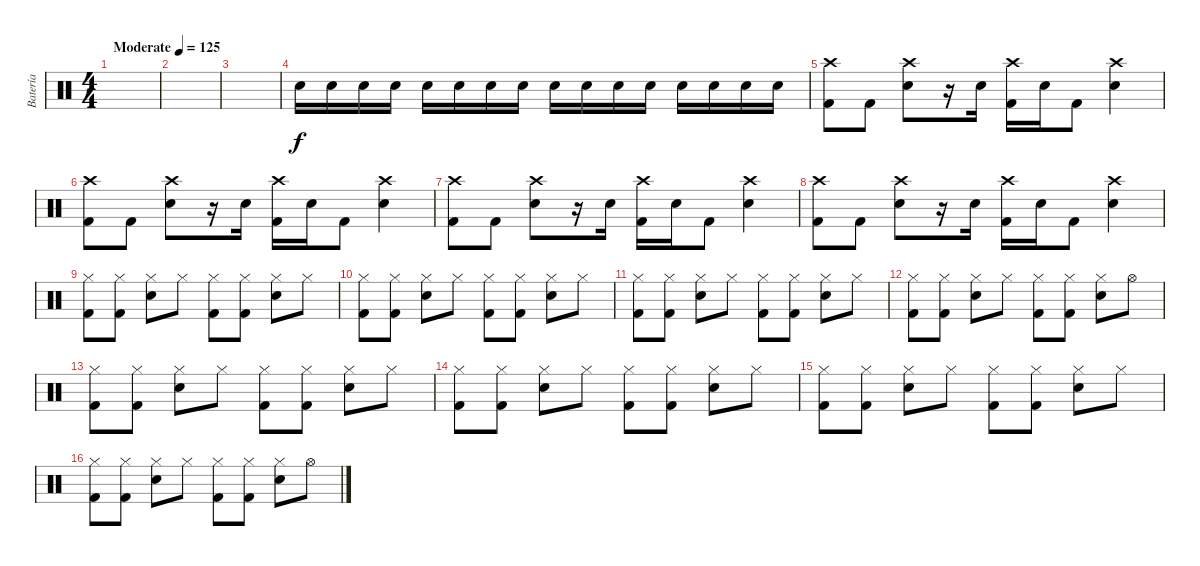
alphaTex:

\track ("Batería" "Batería") {instrument percussion}
\staff {score}
\articulation defaults
\ts (4 4)
\tempo (125 "Moderate")
\clef neutral
\ks c
|
|
|
"Snare (hit) 2".16 "Snare (hit) 2".16 "Snare (hit) 2".16 "Snare (hit) 2".16 "Snare (hit) 2".16 "Snare (hit) 2".16 "Snare (hit) 2".16 "Snare (hit) 2".16 "Snare (hit) 2".16 "Snare (hit) 2".16 "Snare (hit) 2".16 "Snare (hit) 2".16 "Snare (hit) 2".16 "Snare (hit) 2".16 "Snare (hit) 2".16 "Snare (hit) 2".16 |
("Crash high (hit)" "Kick (hit) 2").8 "Kick (hit) 2".8 ("Crash high (hit)" "Snare (hit) 2").8 r.16 "Snare (hit) 2".16 ("Crash high (hit)" "Kick (hit) 2").16 "Snare (hit) 2".16 "Kick (hit) 2".8 ("Crash high (hit)" "Snare (hit) 2").4 |
("Crash high (hit)" "Kick (hit) 2").8 "Kick (hit) 2".8 ("Crash high (hit)" "Snare (hit) 2").8 r.16 "Snare (hit) 2".16 ("Crash high (hit)" "Kick (hit) 2").16 "Snare (hit) 2".16 "Kick (hit) 2".8 ("Crash high (hit)" "Snare (hit) 2").4 |
("Crash high (hit)" "Kick (hit) 2").8 "Kick (hit) 2".8 ("Crash high (hit)" "Snare (hit) 2").8 r.16 "Snare (hit) 2".16 ("Crash high (hit)" "Kick (hit) 2").16 "Snare (hit) 2".16 "Kick (hit) 2".8 ("Crash high (hit)" "Snare (hit) 2").4 |
("Crash high (hit)" "Kick (hit) 2").8 "Kick (hit) 2".8 ("Crash high (hit)" "Snare (hit) 2").8 r.16 "Snare (hit) 2".16 ("Crash high (hit)" "Kick (hit) 2").16 "Snare (hit) 2".16 "Kick (hit) 2".8 ("Crash high (hit)" "Snare (hit) 2").4 |
("Hi-Hat (closed)" "Kick (hit) 2").8 ("Hi-Hat (closed)" "Kick (hit) 2").8 ("Hi-Hat (closed)" "Snare (hit) 2").8 "Hi-Hat (closed)".8 ("Hi-Hat (closed)" "Kick (hit) 2").8 ("Hi-Hat (closed)" "Kick (hit) 2").8 ("Hi-Hat (closed)" "Snare (hit) 2").8 "Hi-Hat (closed)".8 |
("Hi-Hat (closed)" "Kick (hit) 2").8 ("Hi-Hat (closed)" "Kick (hit) 2").8 ("Hi-Hat (closed)" "Snare (hit) 2").8 "Hi-Hat (closed)".8 ("Hi-Hat (closed)" "Kick (hit) 2").8 ("Hi-Hat (closed)" "Kick (hit) 2").8 ("Hi-Hat (closed)" "Snare (hit) 2").8 "Hi-Hat (closed)".8 |
("Hi-Hat (closed)" "Kick (hit) 2").8 ("Hi-Hat (closed)" "Kick (hit) 2").8 ("Hi-Hat (closed)" "Snare (hit) 2").8 "Hi-Hat (closed)".8 ("Hi-Hat (closed)" "Kick (hit) 2").8 ("Hi-Hat (closed)" "Kick (hit) 2").8 ("Hi-Hat (closed)" "Snare (hit) 2").8 "Hi-Hat (closed)".8 |
("Hi-Hat (closed)" "Kick (hit) 2").8 ("Hi-Hat (closed)" "Kick (hit) 2").8 ("Hi-Hat (closed)" "Snare (hit) 2").8 "Hi-Hat (closed)".8 ("Hi-Hat (closed)" "Kick (hit) 2").8 ("Hi-Hat (closed)" "Kick (hit) 2").8 ("Hi-Hat (closed)" "Snare (hit) 2").8 "Hi-Hat (open)".8 |
("Hi-Hat (closed)" "Kick (hit) 2").8 ("Hi-Hat (closed)" "Kick (hit) 2").8 ("Hi-Hat (closed)" "Snare (hit) 2").8 "Hi-Hat (closed)".8 ("Hi-Hat (closed)" "Kick (hit) 2").8 ("Hi-Hat (closed)" "Kick (hit) 2").8 ("Hi-Hat (closed)" "Snare (hit) 2").8 "Hi-Hat (closed)".8 |
("Hi-Hat (closed)" "Kick (hit) 2").8 ("Hi-Hat (closed)" "Kick (hit) 2").8 ("Hi-Hat (closed)" "Snare (hit) 2").8 "Hi-Hat (closed)".8 ("Hi-Hat (closed)" "Kick (hit) 2").8 ("Hi-Hat (closed)" "Kick (hit) 2").8 ("Hi-Hat (closed)" "Snare (hit) 2").8 "Hi-Hat (closed)".8 |
("Hi-Hat (closed)" "Kick (hit) 2").8 ("Hi-Hat (closed)" "Kick (hit) 2").8 ("Hi-Hat (closed)" "Snare (hit) 2").8 "Hi-Hat (closed)".8 ("Hi-Hat (closed)" "Kick (hit) 2").8 ("Hi-Hat (closed)" "Kick (hit) 2").8 ("Hi-Hat (closed)" "Snare (hit) 2").8 "Hi-Hat (closed)".8 |
("Hi-Hat (closed)" "Kick (hit) 2").8 ("Hi-Hat (closed)" "Kick (hit) 2").8 ("Hi-Hat (closed)" "Snare (hit) 2").8 "Hi-Hat (closed)".8 ("Hi-Hat (closed)" "Kick (hit) 2").8 ("Hi-Hat (closed)" "Kick (hit) 2").8 ("Hi-Hat (closed)" "Snare (hit) 2").8 "Hi-Hat (open)".8
